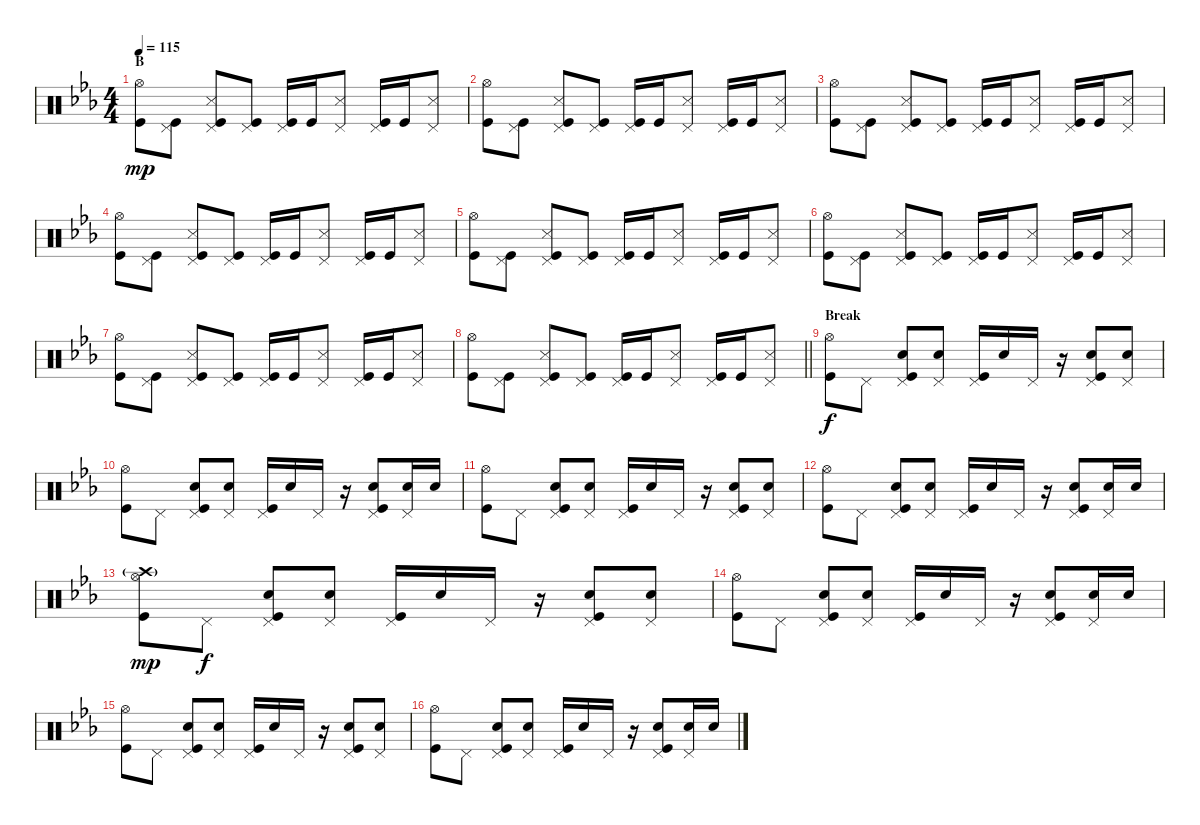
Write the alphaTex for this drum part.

\track "" {instrument percussion}
\staff {score}
\articulation defaults
\ts (4 4)
\section ("" "B")
\tempo 115
\clef neutral
\ks cminor
("Hi-Hat (open)" "Kick (hit)").8{dy mp} ("Pedal Hi-Hat (hit)" "Kick (hit)").8 ("Pedal Hi-Hat (hit)" "Snare (side stick) 3" "Kick (hit)").8 ("Pedal Hi-Hat (hit)" "Kick (hit)").8 ("Pedal Hi-Hat (hit)" "Kick (hit)").16 "Kick (hit)".16 ("Pedal Hi-Hat (hit)" "Snare (side stick) 3").8 ("Pedal Hi-Hat (hit)" "Kick (hit)").16 "Kick (hit)".16 ("Pedal Hi-Hat (hit)" "Snare (side stick) 3").8 |
("Hi-Hat (open)" "Kick (hit)").8 ("Pedal Hi-Hat (hit)" "Kick (hit)").8 ("Pedal Hi-Hat (hit)" "Snare (side stick) 3" "Kick (hit)").8 ("Pedal Hi-Hat (hit)" "Kick (hit)").8 ("Pedal Hi-Hat (hit)" "Kick (hit)").16 "Kick (hit)".16 ("Pedal Hi-Hat (hit)" "Snare (side stick) 3").8 ("Pedal Hi-Hat (hit)" "Kick (hit)").16 "Kick (hit)".16 ("Pedal Hi-Hat (hit)" "Snare (side stick) 3").8 |
("Hi-Hat (open)" "Kick (hit)").8 ("Pedal Hi-Hat (hit)" "Kick (hit)").8 ("Pedal Hi-Hat (hit)" "Snare (side stick) 3" "Kick (hit)").8 ("Pedal Hi-Hat (hit)" "Kick (hit)").8 ("Pedal Hi-Hat (hit)" "Kick (hit)").16 "Kick (hit)".16 ("Pedal Hi-Hat (hit)" "Snare (side stick) 3").8 ("Pedal Hi-Hat (hit)" "Kick (hit)").16 "Kick (hit)".16 ("Pedal Hi-Hat (hit)" "Snare (side stick) 3").8 |
("Hi-Hat (open)" "Kick (hit)").8 ("Pedal Hi-Hat (hit)" "Kick (hit)").8 ("Pedal Hi-Hat (hit)" "Snare (side stick) 3" "Kick (hit)").8 ("Pedal Hi-Hat (hit)" "Kick (hit)").8 ("Pedal Hi-Hat (hit)" "Kick (hit)").16 "Kick (hit)".16 ("Pedal Hi-Hat (hit)" "Snare (side stick) 3").8 ("Pedal Hi-Hat (hit)" "Kick (hit)").16 "Kick (hit)".16 ("Pedal Hi-Hat (hit)" "Snare (side stick) 3").8 |
("Hi-Hat (open)" "Kick (hit)").8 ("Pedal Hi-Hat (hit)" "Kick (hit)").8 ("Pedal Hi-Hat (hit)" "Snare (side stick) 3" "Kick (hit)").8 ("Pedal Hi-Hat (hit)" "Kick (hit)").8 ("Pedal Hi-Hat (hit)" "Kick (hit)").16 "Kick (hit)".16 ("Pedal Hi-Hat (hit)" "Snare (side stick) 3").8 ("Pedal Hi-Hat (hit)" "Kick (hit)").16 "Kick (hit)".16 ("Pedal Hi-Hat (hit)" "Snare (side stick) 3").8 |
("Hi-Hat (open)" "Kick (hit)").8 ("Pedal Hi-Hat (hit)" "Kick (hit)").8 ("Pedal Hi-Hat (hit)" "Snare (side stick) 3" "Kick (hit)").8 ("Pedal Hi-Hat (hit)" "Kick (hit)").8 ("Pedal Hi-Hat (hit)" "Kick (hit)").16 "Kick (hit)".16 ("Pedal Hi-Hat (hit)" "Snare (side stick) 3").8 ("Pedal Hi-Hat (hit)" "Kick (hit)").16 "Kick (hit)".16 ("Pedal Hi-Hat (hit)" "Snare (side stick) 3").8 |
("Hi-Hat (open)" "Kick (hit)").8 ("Pedal Hi-Hat (hit)" "Kick (hit)").8 ("Pedal Hi-Hat (hit)" "Snare (side stick) 3" "Kick (hit)").8 ("Pedal Hi-Hat (hit)" "Kick (hit)").8 ("Pedal Hi-Hat (hit)" "Kick (hit)").16 "Kick (hit)".16 ("Pedal Hi-Hat (hit)" "Snare (side stick) 3").8 ("Pedal Hi-Hat (hit)" "Kick (hit)").16 "Kick (hit)".16 ("Pedal Hi-Hat (hit)" "Snare (side stick) 3").8 |
\barLineRight lightlight
("Hi-Hat (open)" "Kick (hit)").8 ("Pedal Hi-Hat (hit)" "Kick (hit)").8 ("Pedal Hi-Hat (hit)" "Snare (side stick) 3" "Kick (hit)").8 ("Pedal Hi-Hat (hit)" "Kick (hit)").8 ("Pedal Hi-Hat (hit)" "Kick (hit)").16 "Kick (hit)".16 ("Pedal Hi-Hat (hit)" "Snare (side stick) 3").8 ("Pedal Hi-Hat (hit)" "Kick (hit)").16 "Kick (hit)".16 ("Pedal Hi-Hat (hit)" "Snare (side stick) 3").8 |
\section ("" "Break")
("Hi-Hat (open)" "Kick (hit)").8{dy f} "Pedal Hi-Hat (hit)".8 ("Pedal Hi-Hat (hit)" "Electric Snare (hit)" "Kick (hit)").8 ("Pedal Hi-Hat (hit)" "Electric Snare (hit)").8 ("Pedal Hi-Hat (hit)" "Kick (hit)").16 "Electric Snare (hit)".16 "Pedal Hi-Hat (hit)".16 r.16 ("Pedal Hi-Hat (hit)" "Electric Snare (hit)" "Kick (hit)").8 ("Pedal Hi-Hat (hit)" "Electric Snare (hit)").8 |
("Hi-Hat (open)" "Kick (hit)").8 "Pedal Hi-Hat (hit)".8 ("Pedal Hi-Hat (hit)" "Electric Snare (hit)" "Kick (hit)").8 ("Pedal Hi-Hat (hit)" "Electric Snare (hit)").8 ("Pedal Hi-Hat (hit)" "Kick (hit)").16 "Electric Snare (hit)".16 "Pedal Hi-Hat (hit)".16 r.16 ("Pedal Hi-Hat (hit)" "Electric Snare (hit)" "Kick (hit)").8 ("Pedal Hi-Hat (hit)" "Electric Snare (hit)").16 "Electric Snare (hit)".16 |
("Hi-Hat (open)" "Kick (hit)").8 "Pedal Hi-Hat (hit)".8 ("Pedal Hi-Hat (hit)" "Electric Snare (hit)" "Kick (hit)").8 ("Pedal Hi-Hat (hit)" "Electric Snare (hit)").8 ("Pedal Hi-Hat (hit)" "Kick (hit)").16 "Electric Snare (hit)".16 "Pedal Hi-Hat (hit)".16 r.16 ("Pedal Hi-Hat (hit)" "Electric Snare (hit)" "Kick (hit)").8 ("Pedal Hi-Hat (hit)" "Electric Snare (hit)").8 |
("Hi-Hat (open)" "Kick (hit)").8 "Pedal Hi-Hat (hit)".8 ("Pedal Hi-Hat (hit)" "Electric Snare (hit)" "Kick (hit)").8 ("Pedal Hi-Hat (hit)" "Electric Snare (hit)").8 ("Pedal Hi-Hat (hit)" "Kick (hit)").16 "Electric Snare (hit)".16 "Pedal Hi-Hat (hit)".16 r.16 ("Pedal Hi-Hat (hit)" "Electric Snare (hit)" "Kick (hit)").8 ("Pedal Hi-Hat (hit)" "Electric Snare (hit)").16 "Electric Snare (hit)".16 |
("Hi-Hat (open)" "Crash high (hit)"{g} "Kick (hit)").8{dy mp} "Pedal Hi-Hat (hit)".8{dy f} ("Pedal Hi-Hat (hit)" "Electric Snare (hit)" "Kick (hit)").8 ("Pedal Hi-Hat (hit)" "Electric Snare (hit)").8 ("Pedal Hi-Hat (hit)" "Kick (hit)").16 "Electric Snare (hit)".16 "Pedal Hi-Hat (hit)".16 r.16 ("Pedal Hi-Hat (hit)" "Electric Snare (hit)" "Kick (hit)").8 ("Pedal Hi-Hat (hit)" "Electric Snare (hit)").8 |
("Hi-Hat (open)" "Kick (hit)").8 "Pedal Hi-Hat (hit)".8 ("Pedal Hi-Hat (hit)" "Electric Snare (hit)" "Kick (hit)").8 ("Pedal Hi-Hat (hit)" "Electric Snare (hit)").8 ("Pedal Hi-Hat (hit)" "Kick (hit)").16 "Electric Snare (hit)".16 "Pedal Hi-Hat (hit)".16 r.16 ("Pedal Hi-Hat (hit)" "Electric Snare (hit)" "Kick (hit)").8 ("Pedal Hi-Hat (hit)" "Electric Snare (hit)").16 "Electric Snare (hit)".16 |
("Hi-Hat (open)" "Kick (hit)").8 "Pedal Hi-Hat (hit)".8 ("Pedal Hi-Hat (hit)" "Electric Snare (hit)" "Kick (hit)").8 ("Pedal Hi-Hat (hit)" "Electric Snare (hit)").8 ("Pedal Hi-Hat (hit)" "Kick (hit)").16 "Electric Snare (hit)".16 "Pedal Hi-Hat (hit)".16 r.16 ("Pedal Hi-Hat (hit)" "Electric Snare (hit)" "Kick (hit)").8 ("Pedal Hi-Hat (hit)" "Electric Snare (hit)").8 |
("Hi-Hat (open)" "Kick (hit)").8 "Pedal Hi-Hat (hit)".8 ("Pedal Hi-Hat (hit)" "Electric Snare (hit)" "Kick (hit)").8 ("Pedal Hi-Hat (hit)" "Electric Snare (hit)").8 ("Pedal Hi-Hat (hit)" "Kick (hit)").16 "Electric Snare (hit)".16 "Pedal Hi-Hat (hit)".16 r.16 ("Pedal Hi-Hat (hit)" "Electric Snare (hit)" "Kick (hit)").8 ("Pedal Hi-Hat (hit)" "Electric Snare (hit)").16 "Electric Snare (hit)".16
